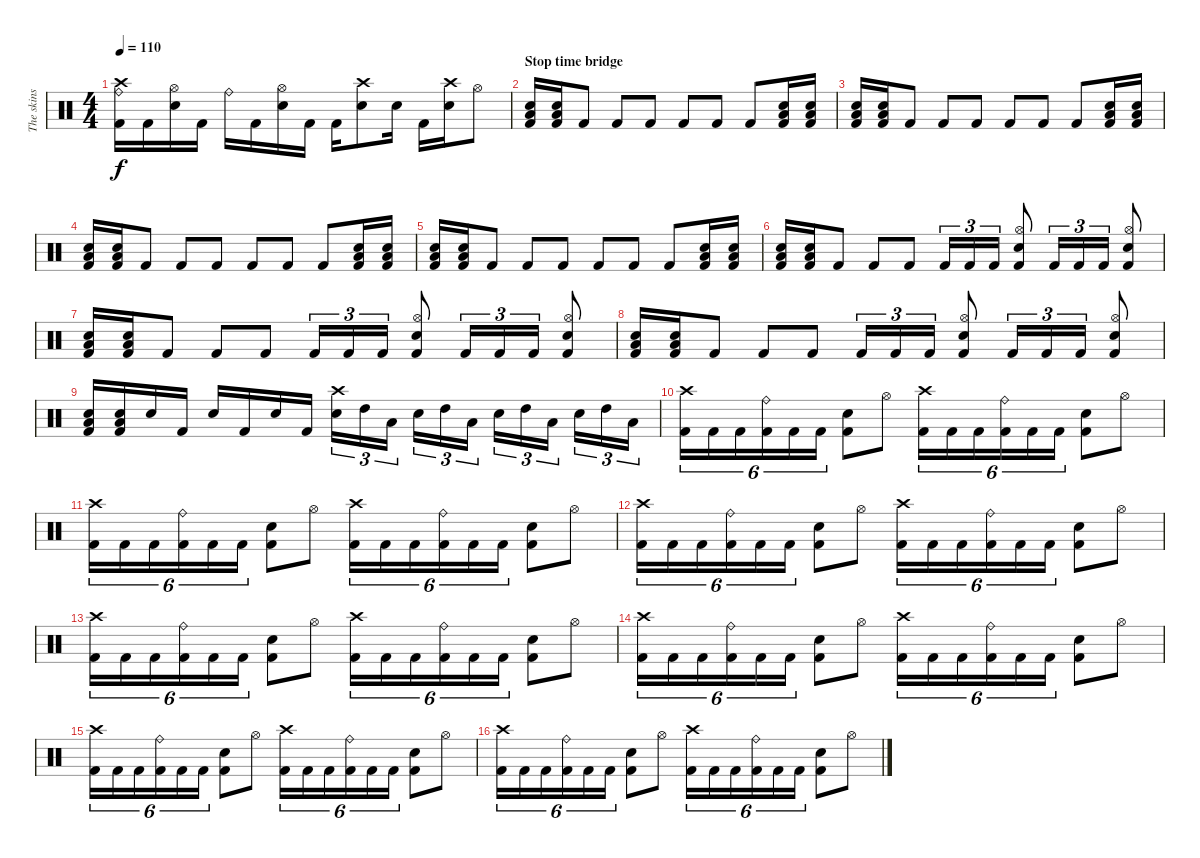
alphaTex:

\track ("The skins" "The skins") {instrument percussion}
\staff {score}
\articulation defaults
\ts (4 4)
\tempo 110
\clef neutral
\ks c
("Crash high (hit)" "Ride (bell)" "Kick (hit) 2").16{dy f} "Kick (hit) 2".16 ("Hi-Hat (open)" "Electric Snare (hit)").16 "Kick (hit) 2".16 "Ride (bell)".16 "Kick (hit) 2".16 ("Hi-Hat (open)" "Electric Snare (hit)").16 "Kick (hit) 2".16 "Kick (hit) 2".16 ("Crash high (hit)" "Electric Snare (hit)").8 "Electric Snare (hit)".16 "Kick (hit) 2".16 ("Crash high (hit)" "Electric Snare (hit)").16 "Hi-Hat (open)".8 |
\section ("" "Stop time bridge")
("Electric Snare (hit)" "Low Floor Tom (hit)" "Kick (hit) 2").16 ("Electric Snare (hit)" "Low Floor Tom (hit)" "Kick (hit) 2").16 "Kick (hit) 2".8 "Kick (hit) 2".8 "Kick (hit) 2".8 "Kick (hit) 2".8 "Kick (hit) 2".8 "Kick (hit) 2".8 ("Electric Snare (hit)" "Low Floor Tom (hit)" "Kick (hit) 2").16 ("Electric Snare (hit)" "Low Floor Tom (hit)" "Kick (hit) 2").16 |
("Electric Snare (hit)" "Low Floor Tom (hit)" "Kick (hit) 2").16 ("Electric Snare (hit)" "Low Floor Tom (hit)" "Kick (hit) 2").16 "Kick (hit) 2".8 "Kick (hit) 2".8 "Kick (hit) 2".8 "Kick (hit) 2".8 "Kick (hit) 2".8 "Kick (hit) 2".8 ("Electric Snare (hit)" "Low Floor Tom (hit)" "Kick (hit) 2").16 ("Electric Snare (hit)" "Low Floor Tom (hit)" "Kick (hit) 2").16 |
("Electric Snare (hit)" "Low Floor Tom (hit)" "Kick (hit) 2").16 ("Electric Snare (hit)" "Low Floor Tom (hit)" "Kick (hit) 2").16 "Kick (hit) 2".8 "Kick (hit) 2".8 "Kick (hit) 2".8 "Kick (hit) 2".8 "Kick (hit) 2".8 "Kick (hit) 2".8 ("Electric Snare (hit)" "Low Floor Tom (hit)" "Kick (hit) 2").16 ("Electric Snare (hit)" "Low Floor Tom (hit)" "Kick (hit) 2").16 |
("Electric Snare (hit)" "Low Floor Tom (hit)" "Kick (hit) 2").16 ("Electric Snare (hit)" "Low Floor Tom (hit)" "Kick (hit) 2").16 "Kick (hit) 2".8 "Kick (hit) 2".8 "Kick (hit) 2".8 "Kick (hit) 2".8 "Kick (hit) 2".8 "Kick (hit) 2".8 ("Electric Snare (hit)" "Low Floor Tom (hit)" "Kick (hit) 2").16 ("Electric Snare (hit)" "Low Floor Tom (hit)" "Kick (hit) 2").16 |
("Electric Snare (hit)" "Low Floor Tom (hit)" "Kick (hit) 2").16 ("Electric Snare (hit)" "Low Floor Tom (hit)" "Kick (hit) 2").16 "Kick (hit) 2".8 "Kick (hit) 2".8 "Kick (hit) 2".8 "Kick (hit) 2".16{tu (3 2)} "Kick (hit) 2".16{tu (3 2)} "Kick (hit) 2".16{tu (3 2)} ("Hi-Hat (open)" "Electric Snare (hit)" "Kick (hit) 2").8 "Kick (hit) 2".16{tu (3 2)} "Kick (hit) 2".16{tu (3 2)} "Kick (hit) 2".16{tu (3 2)} ("Hi-Hat (open)" "Electric Snare (hit)" "Kick (hit) 2").8 |
("Electric Snare (hit)" "Low Floor Tom (hit)" "Kick (hit) 2").16 ("Electric Snare (hit)" "Low Floor Tom (hit)" "Kick (hit) 2").16 "Kick (hit) 2".8 "Kick (hit) 2".8 "Kick (hit) 2".8 "Kick (hit) 2".16{tu (3 2)} "Kick (hit) 2".16{tu (3 2)} "Kick (hit) 2".16{tu (3 2)} ("Hi-Hat (open)" "Electric Snare (hit)" "Kick (hit) 2").8 "Kick (hit) 2".16{tu (3 2)} "Kick (hit) 2".16{tu (3 2)} "Kick (hit) 2".16{tu (3 2)} ("Hi-Hat (open)" "Electric Snare (hit)" "Kick (hit) 2").8 |
("Electric Snare (hit)" "Low Floor Tom (hit)" "Kick (hit) 2").16 ("Electric Snare (hit)" "Low Floor Tom (hit)" "Kick (hit) 2").16 "Kick (hit) 2".8 "Kick (hit) 2".8 "Kick (hit) 2".8 "Kick (hit) 2".16{tu (3 2)} "Kick (hit) 2".16{tu (3 2)} "Kick (hit) 2".16{tu (3 2)} ("Hi-Hat (open)" "Electric Snare (hit)" "Kick (hit) 2").8 "Kick (hit) 2".16{tu (3 2)} "Kick (hit) 2".16{tu (3 2)} "Kick (hit) 2".16{tu (3 2)} ("Hi-Hat (open)" "Electric Snare (hit)" "Kick (hit) 2").8 |
("Electric Snare (hit)" "Low Floor Tom (hit)" "Kick (hit) 2").16 ("Electric Snare (hit)" "Low Floor Tom (hit)" "Kick (hit) 2").16 "Electric Snare (hit)".16 "Kick (hit) 2".16 "Electric Snare (hit)".16 "Kick (hit) 2".16 "Electric Snare (hit)".16 "Kick (hit) 2".16 ("Crash high (hit)" "Electric Snare (hit)").16{tu (3 2)} "High Tom (hit)".16{tu (3 2)} "Low Floor Tom (hit)".16{tu (3 2)} "Electric Snare (hit)".16{tu (3 2)} "High Tom (hit)".16{tu (3 2)} "Low Floor Tom (hit)".16{tu (3 2)} "Electric Snare (hit)".16{tu (3 2)} "High Tom (hit)".16{tu (3 2)} "Low Floor Tom (hit)".16{tu (3 2)} "Electric Snare (hit)".16{tu (3 2)} "High Tom (hit)".16{tu (3 2)} "Low Floor Tom (hit)".16{tu (3 2)} |
("Crash high (hit)" "Kick (hit) 2").16{tu (6 4)} "Kick (hit) 2".16{tu (6 4)} "Kick (hit) 2".16{tu (6 4)} ("Ride (bell)" "Kick (hit) 2").16{tu (6 4)} "Kick (hit) 2".16{tu (6 4)} "Kick (hit) 2".16{tu (6 4)} ("Electric Snare (hit)" "Kick (hit) 2").8 "Hi-Hat (open)".8 ("Crash high (hit)" "Kick (hit) 2").16{tu (6 4)} "Kick (hit) 2".16{tu (6 4)} "Kick (hit) 2".16{tu (6 4)} ("Ride (bell)" "Kick (hit) 2").16{tu (6 4)} "Kick (hit) 2".16{tu (6 4)} "Kick (hit) 2".16{tu (6 4)} ("Electric Snare (hit)" "Kick (hit) 2").8 "Hi-Hat (open)".8 |
("Crash high (hit)" "Kick (hit) 2").16{tu (6 4)} "Kick (hit) 2".16{tu (6 4)} "Kick (hit) 2".16{tu (6 4)} ("Ride (bell)" "Kick (hit) 2").16{tu (6 4)} "Kick (hit) 2".16{tu (6 4)} "Kick (hit) 2".16{tu (6 4)} ("Electric Snare (hit)" "Kick (hit) 2").8 "Hi-Hat (open)".8 ("Crash high (hit)" "Kick (hit) 2").16{tu (6 4)} "Kick (hit) 2".16{tu (6 4)} "Kick (hit) 2".16{tu (6 4)} ("Ride (bell)" "Kick (hit) 2").16{tu (6 4)} "Kick (hit) 2".16{tu (6 4)} "Kick (hit) 2".16{tu (6 4)} ("Electric Snare (hit)" "Kick (hit) 2").8 "Hi-Hat (open)".8 |
("Crash high (hit)" "Kick (hit) 2").16{tu (6 4)} "Kick (hit) 2".16{tu (6 4)} "Kick (hit) 2".16{tu (6 4)} ("Ride (bell)" "Kick (hit) 2").16{tu (6 4)} "Kick (hit) 2".16{tu (6 4)} "Kick (hit) 2".16{tu (6 4)} ("Electric Snare (hit)" "Kick (hit) 2").8 "Hi-Hat (open)".8 ("Crash high (hit)" "Kick (hit) 2").16{tu (6 4)} "Kick (hit) 2".16{tu (6 4)} "Kick (hit) 2".16{tu (6 4)} ("Ride (bell)" "Kick (hit) 2").16{tu (6 4)} "Kick (hit) 2".16{tu (6 4)} "Kick (hit) 2".16{tu (6 4)} ("Electric Snare (hit)" "Kick (hit) 2").8 "Hi-Hat (open)".8 |
("Crash high (hit)" "Kick (hit) 2").16{tu (6 4)} "Kick (hit) 2".16{tu (6 4)} "Kick (hit) 2".16{tu (6 4)} ("Ride (bell)" "Kick (hit) 2").16{tu (6 4)} "Kick (hit) 2".16{tu (6 4)} "Kick (hit) 2".16{tu (6 4)} ("Electric Snare (hit)" "Kick (hit) 2").8 "Hi-Hat (open)".8 ("Crash high (hit)" "Kick (hit) 2").16{tu (6 4)} "Kick (hit) 2".16{tu (6 4)} "Kick (hit) 2".16{tu (6 4)} ("Ride (bell)" "Kick (hit) 2").16{tu (6 4)} "Kick (hit) 2".16{tu (6 4)} "Kick (hit) 2".16{tu (6 4)} ("Electric Snare (hit)" "Kick (hit) 2").8 "Hi-Hat (open)".8 |
("Crash high (hit)" "Kick (hit) 2").16{tu (6 4)} "Kick (hit) 2".16{tu (6 4)} "Kick (hit) 2".16{tu (6 4)} ("Ride (bell)" "Kick (hit) 2").16{tu (6 4)} "Kick (hit) 2".16{tu (6 4)} "Kick (hit) 2".16{tu (6 4)} ("Electric Snare (hit)" "Kick (hit) 2").8 "Hi-Hat (open)".8 ("Crash high (hit)" "Kick (hit) 2").16{tu (6 4)} "Kick (hit) 2".16{tu (6 4)} "Kick (hit) 2".16{tu (6 4)} ("Ride (bell)" "Kick (hit) 2").16{tu (6 4)} "Kick (hit) 2".16{tu (6 4)} "Kick (hit) 2".16{tu (6 4)} ("Electric Snare (hit)" "Kick (hit) 2").8 "Hi-Hat (open)".8 |
("Crash high (hit)" "Kick (hit) 2").16{tu (6 4)} "Kick (hit) 2".16{tu (6 4)} "Kick (hit) 2".16{tu (6 4)} ("Ride (bell)" "Kick (hit) 2").16{tu (6 4)} "Kick (hit) 2".16{tu (6 4)} "Kick (hit) 2".16{tu (6 4)} ("Electric Snare (hit)" "Kick (hit) 2").8 "Hi-Hat (open)".8 ("Crash high (hit)" "Kick (hit) 2").16{tu (6 4)} "Kick (hit) 2".16{tu (6 4)} "Kick (hit) 2".16{tu (6 4)} ("Ride (bell)" "Kick (hit) 2").16{tu (6 4)} "Kick (hit) 2".16{tu (6 4)} "Kick (hit) 2".16{tu (6 4)} ("Electric Snare (hit)" "Kick (hit) 2").8 "Hi-Hat (open)".8 |
("Crash high (hit)" "Kick (hit) 2").16{tu (6 4)} "Kick (hit) 2".16{tu (6 4)} "Kick (hit) 2".16{tu (6 4)} ("Ride (bell)" "Kick (hit) 2").16{tu (6 4)} "Kick (hit) 2".16{tu (6 4)} "Kick (hit) 2".16{tu (6 4)} ("Electric Snare (hit)" "Kick (hit) 2").8 "Hi-Hat (open)".8 ("Crash high (hit)" "Kick (hit) 2").16{tu (6 4)} "Kick (hit) 2".16{tu (6 4)} "Kick (hit) 2".16{tu (6 4)} ("Ride (bell)" "Kick (hit) 2").16{tu (6 4)} "Kick (hit) 2".16{tu (6 4)} "Kick (hit) 2".16{tu (6 4)} ("Electric Snare (hit)" "Kick (hit) 2").8 "Hi-Hat (open)".8
